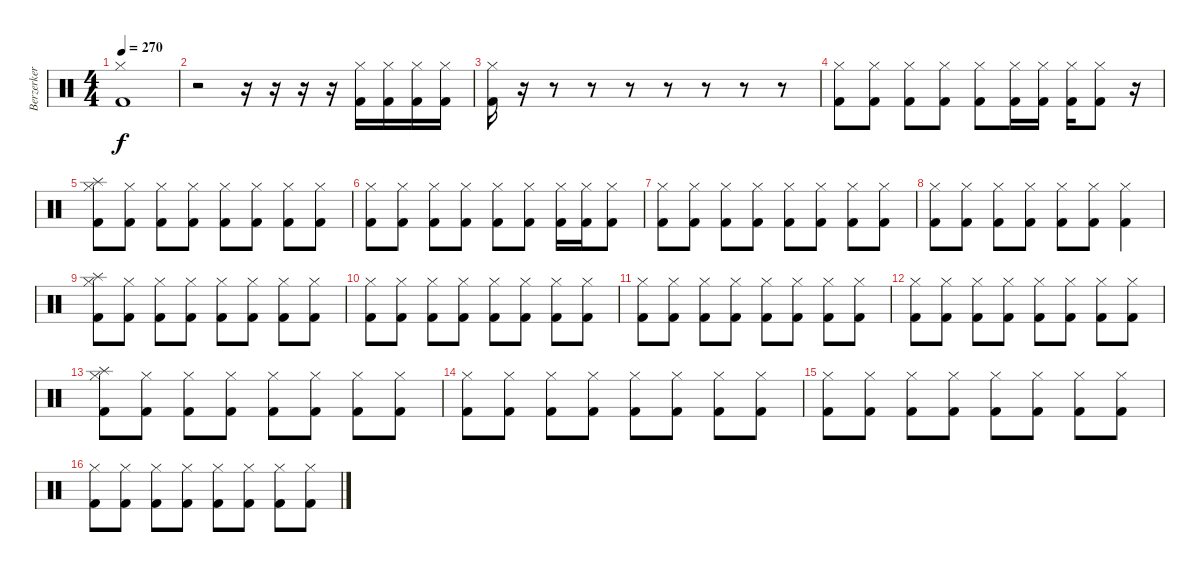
\track ("Berzerker Drum Machine" "Berzerker ") {instrument percussion}
\staff {score}
\articulation defaults
\ts (4 4)
\tempo 270
\clef neutral
\ks c
("Kick (hit) 2" "Hi-Hat (closed)").1{dy f} |
r.2 r.16 r.16 r.16 r.16 ("Kick (hit) 2" "Hi-Hat (closed)").16 ("Kick (hit) 2" "Hi-Hat (closed)").16 ("Kick (hit) 2" "Hi-Hat (closed)").16 ("Kick (hit) 2" "Hi-Hat (closed)").16 |
("Kick (hit) 2" "Hi-Hat (closed)").16 r.16 r.8 r.8 r.8 r.8 r.8 r.8 r.8 |
("Kick (hit) 2" "Hi-Hat (closed)").8 ("Kick (hit) 2" "Hi-Hat (closed)").8 ("Kick (hit) 2" "Hi-Hat (closed)").8 ("Kick (hit) 2" "Hi-Hat (closed)").8 ("Kick (hit) 2" "Hi-Hat (closed)").8 ("Kick (hit) 2" "Hi-Hat (closed)").16 ("Kick (hit) 2" "Hi-Hat (closed)").16 ("Kick (hit) 2" "Hi-Hat (closed)").16 ("Kick (hit) 2" "Hi-Hat (closed)").8 r.16 |
("Splash (hit)" "Kick (hit) 2" "Hi-Hat (closed)").8 ("Kick (hit) 2" "Hi-Hat (closed)").8 ("Kick (hit) 2" "Hi-Hat (closed)").8 ("Kick (hit) 2" "Hi-Hat (closed)").8 ("Kick (hit) 2" "Hi-Hat (closed)").8 ("Kick (hit) 2" "Hi-Hat (closed)").8 ("Kick (hit) 2" "Hi-Hat (closed)").8 ("Kick (hit) 2" "Hi-Hat (closed)").8 |
("Kick (hit) 2" "Hi-Hat (closed)").8 ("Kick (hit) 2" "Hi-Hat (closed)").8 ("Kick (hit) 2" "Hi-Hat (closed)").8 ("Kick (hit) 2" "Hi-Hat (closed)").8 ("Kick (hit) 2" "Hi-Hat (closed)").8 ("Kick (hit) 2" "Hi-Hat (closed)").8 ("Kick (hit) 2" "Hi-Hat (closed)").16 ("Kick (hit) 2" "Hi-Hat (closed)").16 ("Kick (hit) 2" "Hi-Hat (closed)").8 |
("Kick (hit) 2" "Hi-Hat (closed)").8 ("Kick (hit) 2" "Hi-Hat (closed)").8 ("Kick (hit) 2" "Hi-Hat (closed)").8 ("Kick (hit) 2" "Hi-Hat (closed)").8 ("Kick (hit) 2" "Hi-Hat (closed)").8 ("Kick (hit) 2" "Hi-Hat (closed)").8 ("Kick (hit) 2" "Hi-Hat (closed)").8 ("Kick (hit) 2" "Hi-Hat (closed)").8 |
("Kick (hit) 2" "Hi-Hat (closed)").8 ("Kick (hit) 2" "Hi-Hat (closed)").8 ("Kick (hit) 2" "Hi-Hat (closed)").8 ("Kick (hit) 2" "Hi-Hat (closed)").8 ("Kick (hit) 2" "Hi-Hat (closed)").8 ("Kick (hit) 2" "Hi-Hat (closed)").8 ("Kick (hit) 2" "Hi-Hat (closed)").4 |
("Splash (hit)" "Kick (hit) 2" "Hi-Hat (closed)").8 ("Kick (hit) 2" "Hi-Hat (closed)").8 ("Kick (hit) 2" "Hi-Hat (closed)").8 ("Kick (hit) 2" "Hi-Hat (closed)").8 ("Kick (hit) 2" "Hi-Hat (closed)").8 ("Kick (hit) 2" "Hi-Hat (closed)").8 ("Kick (hit) 2" "Hi-Hat (closed)").8 ("Kick (hit) 2" "Hi-Hat (closed)").8 |
("Kick (hit) 2" "Hi-Hat (closed)").8 ("Kick (hit) 2" "Hi-Hat (closed)").8 ("Kick (hit) 2" "Hi-Hat (closed)").8 ("Kick (hit) 2" "Hi-Hat (closed)").8 ("Kick (hit) 2" "Hi-Hat (closed)").8 ("Kick (hit) 2" "Hi-Hat (closed)").8 ("Kick (hit) 2" "Hi-Hat (closed)").8 ("Kick (hit) 2" "Hi-Hat (closed)").8 |
("Kick (hit) 2" "Hi-Hat (closed)").8 ("Kick (hit) 2" "Hi-Hat (closed)").8 ("Kick (hit) 2" "Hi-Hat (closed)").8 ("Kick (hit) 2" "Hi-Hat (closed)").8 ("Kick (hit) 2" "Hi-Hat (closed)").8 ("Kick (hit) 2" "Hi-Hat (closed)").8 ("Kick (hit) 2" "Hi-Hat (closed)").8 ("Kick (hit) 2" "Hi-Hat (closed)").8 |
("Kick (hit) 2" "Hi-Hat (closed)").8 ("Kick (hit) 2" "Hi-Hat (closed)").8 ("Kick (hit) 2" "Hi-Hat (closed)").8 ("Kick (hit) 2" "Hi-Hat (closed)").8 ("Kick (hit) 2" "Hi-Hat (closed)").8 ("Kick (hit) 2" "Hi-Hat (closed)").8 ("Kick (hit) 2" "Hi-Hat (closed)").8 ("Kick (hit) 2" "Hi-Hat (closed)").8 |
("Splash (hit)" "Kick (hit) 2" "Hi-Hat (closed)").8 ("Kick (hit) 2" "Hi-Hat (closed)").8 ("Kick (hit) 2" "Hi-Hat (closed)").8 ("Kick (hit) 2" "Hi-Hat (closed)").8 ("Kick (hit) 2" "Hi-Hat (closed)").8 ("Kick (hit) 2" "Hi-Hat (closed)").8 ("Kick (hit) 2" "Hi-Hat (closed)").8 ("Kick (hit) 2" "Hi-Hat (closed)").8 |
("Kick (hit) 2" "Hi-Hat (closed)").8 ("Kick (hit) 2" "Hi-Hat (closed)").8 ("Kick (hit) 2" "Hi-Hat (closed)").8 ("Kick (hit) 2" "Hi-Hat (closed)").8 ("Kick (hit) 2" "Hi-Hat (closed)").8 ("Kick (hit) 2" "Hi-Hat (closed)").8 ("Kick (hit) 2" "Hi-Hat (closed)").8 ("Kick (hit) 2" "Hi-Hat (closed)").8 |
("Kick (hit) 2" "Hi-Hat (closed)").8 ("Kick (hit) 2" "Hi-Hat (closed)").8 ("Kick (hit) 2" "Hi-Hat (closed)").8 ("Kick (hit) 2" "Hi-Hat (closed)").8 ("Kick (hit) 2" "Hi-Hat (closed)").8 ("Kick (hit) 2" "Hi-Hat (closed)").8 ("Kick (hit) 2" "Hi-Hat (closed)").8 ("Kick (hit) 2" "Hi-Hat (closed)").8 |
("Kick (hit) 2" "Hi-Hat (closed)").8 ("Kick (hit) 2" "Hi-Hat (closed)").8 ("Kick (hit) 2" "Hi-Hat (closed)").8 ("Kick (hit) 2" "Hi-Hat (closed)").8 ("Kick (hit) 2" "Hi-Hat (closed)").8 ("Kick (hit) 2" "Hi-Hat (closed)").8 ("Kick (hit) 2" "Hi-Hat (closed)").8 ("Kick (hit) 2" "Hi-Hat (closed)").8
